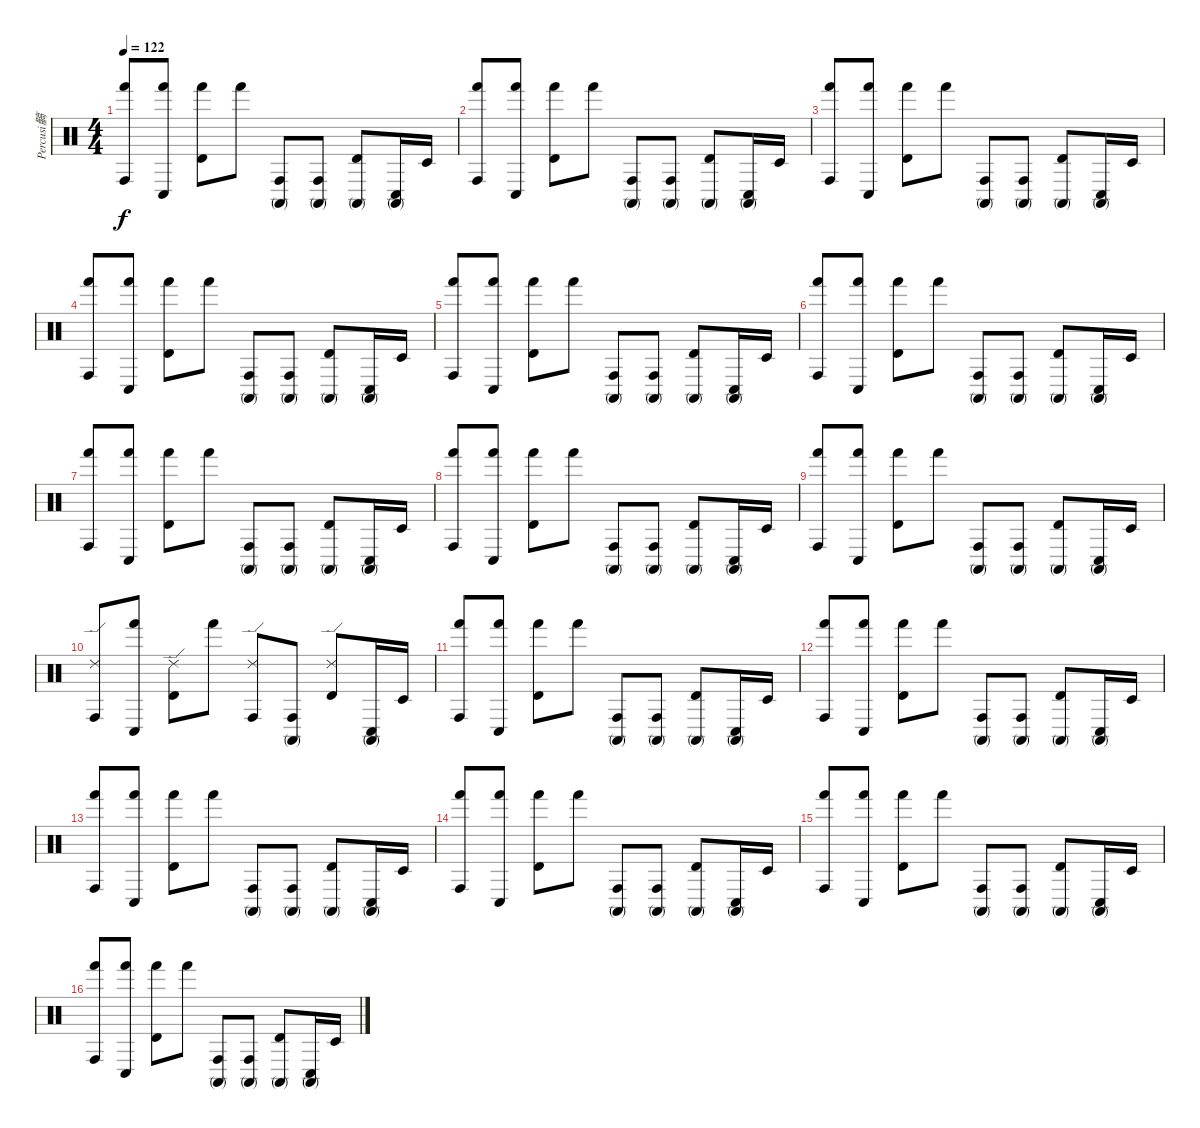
\track ("Percusi髇" "Percusi髇") {instrument percussion}
\staff {score}
\articulation defaults
\ts (4 4)
\tempo 122
\clef neutral
\ks c
("Hand (hit)" "Conga high (hit)").8{dy f} ("Hand (hit)" "Conga low (hit)").8 ("Hand (hit)" "Timbale high (hit)").8 "Hand (hit)".8 ("Conga high (mute)" "Conga high (hit)").8 ("Conga high (mute)" "Conga high (hit)").8 ("Conga high (mute)" "Timbale high (hit)").8 ("Conga high (mute)" "Conga low (hit)").16 "Timbale low (hit)".16 |
("Hand (hit)" "Conga high (hit)").8 ("Hand (hit)" "Conga low (hit)").8 ("Hand (hit)" "Timbale high (hit)").8 "Hand (hit)".8 ("Conga high (mute)" "Conga high (hit)").8 ("Conga high (mute)" "Conga high (hit)").8 ("Conga high (mute)" "Timbale high (hit)").8 ("Conga high (mute)" "Conga low (hit)").16 "Timbale low (hit)".16 |
("Hand (hit)" "Conga high (hit)").8 ("Hand (hit)" "Conga low (hit)").8 ("Hand (hit)" "Timbale high (hit)").8 "Hand (hit)".8 ("Conga high (mute)" "Conga high (hit)").8 ("Conga high (mute)" "Conga high (hit)").8 ("Conga high (mute)" "Timbale high (hit)").8 ("Conga high (mute)" "Conga low (hit)").16 "Timbale low (hit)".16 |
("Hand (hit)" "Conga high (hit)").8 ("Hand (hit)" "Conga low (hit)").8 ("Hand (hit)" "Timbale high (hit)").8 "Hand (hit)".8 ("Conga high (mute)" "Conga high (hit)").8 ("Conga high (mute)" "Conga high (hit)").8 ("Conga high (mute)" "Timbale high (hit)").8 ("Conga high (mute)" "Conga low (hit)").16 "Timbale low (hit)".16 |
("Hand (hit)" "Conga high (hit)").8 ("Hand (hit)" "Conga low (hit)").8 ("Hand (hit)" "Timbale high (hit)").8 "Hand (hit)".8 ("Conga high (mute)" "Conga high (hit)").8 ("Conga high (mute)" "Conga high (hit)").8 ("Conga high (mute)" "Timbale high (hit)").8 ("Conga high (mute)" "Conga low (hit)").16 "Timbale low (hit)".16 |
("Hand (hit)" "Conga high (hit)").8 ("Hand (hit)" "Conga low (hit)").8 ("Hand (hit)" "Timbale high (hit)").8 "Hand (hit)".8 ("Conga high (mute)" "Conga high (hit)").8 ("Conga high (mute)" "Conga high (hit)").8 ("Conga high (mute)" "Timbale high (hit)").8 ("Conga high (mute)" "Conga low (hit)").16 "Timbale low (hit)".16 |
("Hand (hit)" "Conga high (hit)").8 ("Hand (hit)" "Conga low (hit)").8 ("Hand (hit)" "Timbale high (hit)").8 "Hand (hit)".8 ("Conga high (mute)" "Conga high (hit)").8 ("Conga high (mute)" "Conga high (hit)").8 ("Conga high (mute)" "Timbale high (hit)").8 ("Conga high (mute)" "Conga low (hit)").16 "Timbale low (hit)".16 |
("Hand (hit)" "Conga high (hit)").8 ("Hand (hit)" "Conga low (hit)").8 ("Hand (hit)" "Timbale high (hit)").8 "Hand (hit)".8 ("Conga high (mute)" "Conga high (hit)").8 ("Conga high (mute)" "Conga high (hit)").8 ("Conga high (mute)" "Timbale high (hit)").8 ("Conga high (mute)" "Conga low (hit)").16 "Timbale low (hit)".16 |
("Hand (hit)" "Conga high (hit)").8 ("Hand (hit)" "Conga low (hit)").8 ("Hand (hit)" "Timbale high (hit)").8 "Hand (hit)".8 ("Conga high (mute)" "Conga high (hit)").8 ("Conga high (mute)" "Conga high (hit)").8 ("Conga high (mute)" "Timbale high (hit)").8 ("Conga high (mute)" "Conga low (hit)").16 "Timbale low (hit)".16 |
("Ride (edge) 2" "Conga high (hit)").8 ("Hand (hit)" "Conga low (hit)").8 ("Ride (edge) 2" "Timbale high (hit)").8 "Hand (hit)".8 ("Ride (edge) 2" "Conga high (hit)").8 ("Conga high (mute)" "Conga high (hit)").8 ("Ride (edge) 2" "Timbale high (hit)").8 ("Conga high (mute)" "Conga low (hit)").16 "Timbale low (hit)".16 |
("Hand (hit)" "Conga high (hit)").8 ("Hand (hit)" "Conga low (hit)").8 ("Hand (hit)" "Timbale high (hit)").8 "Hand (hit)".8 ("Conga high (mute)" "Conga high (hit)").8 ("Conga high (mute)" "Conga high (hit)").8 ("Conga high (mute)" "Timbale high (hit)").8 ("Conga high (mute)" "Conga low (hit)").16 "Timbale low (hit)".16 |
("Hand (hit)" "Conga high (hit)").8 ("Hand (hit)" "Conga low (hit)").8 ("Hand (hit)" "Timbale high (hit)").8 "Hand (hit)".8 ("Conga high (mute)" "Conga high (hit)").8 ("Conga high (mute)" "Conga high (hit)").8 ("Conga high (mute)" "Timbale high (hit)").8 ("Conga high (mute)" "Conga low (hit)").16 "Timbale low (hit)".16 |
("Hand (hit)" "Conga high (hit)").8 ("Hand (hit)" "Conga low (hit)").8 ("Hand (hit)" "Timbale high (hit)").8 "Hand (hit)".8 ("Conga high (mute)" "Conga high (hit)").8 ("Conga high (mute)" "Conga high (hit)").8 ("Conga high (mute)" "Timbale high (hit)").8 ("Conga high (mute)" "Conga low (hit)").16 "Timbale low (hit)".16 |
("Hand (hit)" "Conga high (hit)").8 ("Hand (hit)" "Conga low (hit)").8 ("Hand (hit)" "Timbale high (hit)").8 "Hand (hit)".8 ("Conga high (mute)" "Conga high (hit)").8 ("Conga high (mute)" "Conga high (hit)").8 ("Conga high (mute)" "Timbale high (hit)").8 ("Conga high (mute)" "Conga low (hit)").16 "Timbale low (hit)".16 |
("Hand (hit)" "Conga high (hit)").8 ("Hand (hit)" "Conga low (hit)").8 ("Hand (hit)" "Timbale high (hit)").8 "Hand (hit)".8 ("Conga high (mute)" "Conga high (hit)").8 ("Conga high (mute)" "Conga high (hit)").8 ("Conga high (mute)" "Timbale high (hit)").8 ("Conga high (mute)" "Conga low (hit)").16 "Timbale low (hit)".16 |
("Hand (hit)" "Conga high (hit)").8 ("Hand (hit)" "Conga low (hit)").8 ("Hand (hit)" "Timbale high (hit)").8 "Hand (hit)".8 ("Conga high (mute)" "Conga high (hit)").8 ("Conga high (mute)" "Conga high (hit)").8 ("Conga high (mute)" "Timbale high (hit)").8 ("Conga high (mute)" "Conga low (hit)").16 "Timbale low (hit)".16
